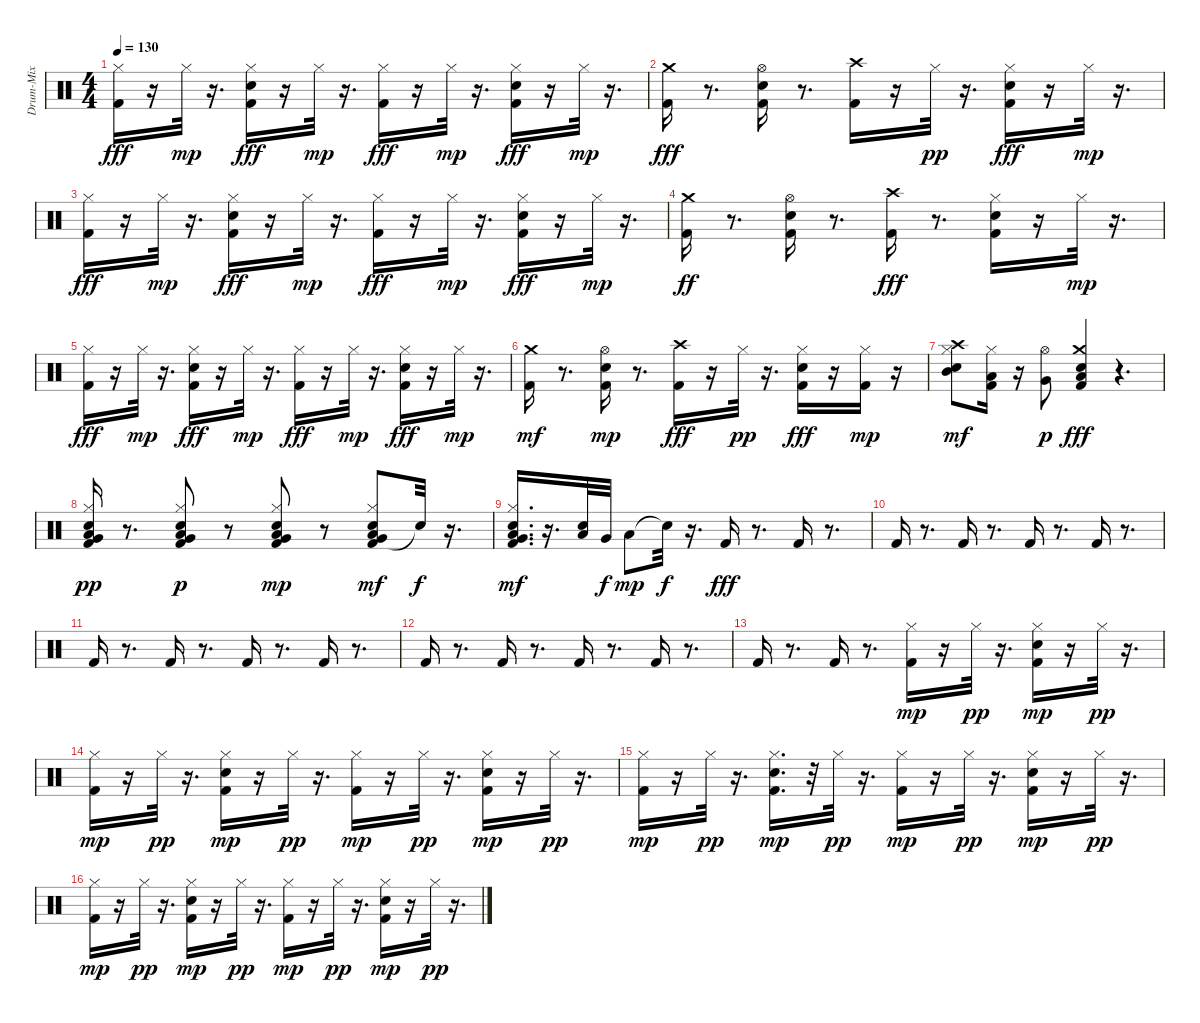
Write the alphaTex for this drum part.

\track ("Drum-Mix" "Drum-Mix") {instrument percussion}
\staff {score}
\articulation defaults
\ts (4 4)
\tempo 130
\clef neutral
\ks c
("Kick (hit) 2" "Hi-Hat (closed)").16{dy fff} r.16 "Hi-Hat (closed)".32{dy mp} r.16{d} ("Kick (hit) 2" "Snare (hit) 2" "Hi-Hat (closed)").16{dy fff} r.16 "Hi-Hat (closed)".32{dy mp} r.16{d} ("Kick (hit) 2" "Hi-Hat (closed)").16{dy fff} r.16 "Hi-Hat (closed)".32{dy mp} r.16{d} ("Kick (hit) 2" "Snare (hit) 2" "Hi-Hat (closed)").16{dy fff} r.16 "Hi-Hat (closed)".32{dy mp} r.16{d} |
("Kick (hit) 2" "Crash medium (hit)").16{dy fff} r.8{d} ("Kick (hit) 2" "Snare (hit) 2" "Hi-Hat (open)").16 r.8{d} ("Kick (hit) 2" "Crash high (hit)").16 r.16 "Hi-Hat (closed)".32{dy pp} r.16{d} ("Kick (hit) 2" "Snare (hit) 2" "Hi-Hat (closed)").16{dy fff} r.16 "Hi-Hat (closed)".32{dy mp} r.16{d} |
("Kick (hit) 2" "Hi-Hat (closed)").16{dy fff} r.16 "Hi-Hat (closed)".32{dy mp} r.16{d} ("Kick (hit) 2" "Snare (hit) 2" "Hi-Hat (closed)").16{dy fff} r.16 "Hi-Hat (closed)".32{dy mp} r.16{d} ("Kick (hit) 2" "Hi-Hat (closed)").16{dy fff} r.16 "Hi-Hat (closed)".32{dy mp} r.16{d} ("Kick (hit) 2" "Snare (hit) 2" "Hi-Hat (closed)").16{dy fff} r.16 "Hi-Hat (closed)".32{dy mp} r.16{d} |
("Kick (hit) 2" "Crash medium (hit)").16{dy ff} r.8{d} ("Kick (hit) 2" "Snare (hit) 2" "Hi-Hat (open)").16 r.8{d} ("Kick (hit) 2" "Crash high (hit)").16{dy fff} r.8{d} ("Kick (hit) 2" "Snare (hit) 2" "Hi-Hat (closed)").16 r.16 "Hi-Hat (closed)".32{dy mp} r.16{d} |
("Kick (hit) 2" "Hi-Hat (closed)").16{dy fff} r.16 "Hi-Hat (closed)".32{dy mp} r.16{d} ("Kick (hit) 2" "Snare (hit) 2" "Hi-Hat (closed)").16{dy fff} r.16 "Hi-Hat (closed)".32{dy mp} r.16{d} ("Kick (hit) 2" "Hi-Hat (closed)").16{dy fff} r.16 "Hi-Hat (closed)".32{dy mp} r.16{d} ("Kick (hit) 2" "Snare (hit) 2" "Hi-Hat (closed)").16{dy fff} r.16 "Hi-Hat (closed)".32{dy mp} r.16{d} |
("Kick (hit) 2" "Crash medium (hit)").16{dy mf} r.8{d} ("Kick (hit) 2" "Snare (hit) 2" "Hi-Hat (open)").16{dy mp} r.8{d} ("Kick (hit) 2" "Crash high (hit)").16{dy fff} r.16 "Hi-Hat (closed)".32{dy pp} r.16{d} ("Kick (hit) 2" "Snare (hit) 2" "Hi-Hat (closed)").16{dy fff} r.16 ("Kick (hit) 2" "Hi-Hat (closed)").16{dy mp} r.16 |
("Snare (hit) 2" "Hi-Hat (closed)" "Mid Tom (hit)" "Crash high (hit)").8{dy mf} ("Kick (hit) 2" "Hi-Hat (closed)" "Low Tom (hit)").16 r.16 ("Very Low Tom (hit)" "Hi-Hat (open)").8{dy p} ("Kick (hit) 2" "Snare (hit) 2" "Low Floor Tom (hit)" "Crash medium (hit)").4{dy fff} r.4{d} |
("Kick (hit) 2" "Snare (hit) 2" "Low Floor Tom (hit)" "Hi-Hat (closed)" "Very Low Tom (hit)").16{dy pp} r.8{d} ("Kick (hit) 2" "Snare (hit) 2" "Low Floor Tom (hit)" "Hi-Hat (closed)" "Very Low Tom (hit)").8{dy p} r.8 ("Kick (hit) 2" "Snare (hit) 2" "Low Floor Tom (hit)" "Hi-Hat (closed)" "Very Low Tom (hit)").8{dy mp} r.8 ("Kick (hit) 2" "Snare (hit) 2" "Low Floor Tom (hit)" "Hi-Hat (closed)" "Very Low Tom (hit)").8{dy mf} "Snare (hit)"{t}.32{dy f} r.16{d} |
("Kick (hit) 2" "Snare (hit) 2" "Low Floor Tom (hit)" "Hi-Hat (closed)" "Very Low Tom (hit)").16{d dy mf} r.16{d} ("Snare (hit) 2" "Low Tom (hit)").32 "Very Low Tom (hit)".32{dy f} "Low Floor Tom (hit)".8{dy mp} "Snare (hit)"{t}.32{dy f} r.16{d} "Kick (hit) 2".16{dy fff} r.8{d} "Kick (hit) 2".16 r.8{d} |
"Kick (hit) 2".16 r.8{d} "Kick (hit) 2".16 r.8{d} "Kick (hit) 2".16 r.8{d} "Kick (hit) 2".16 r.8{d} |
"Kick (hit) 2".16 r.8{d} "Kick (hit) 2".16 r.8{d} "Kick (hit) 2".16 r.8{d} "Kick (hit) 2".16 r.8{d} |
"Kick (hit) 2".16 r.8{d} "Kick (hit) 2".16 r.8{d} "Kick (hit) 2".16 r.8{d} "Kick (hit) 2".16 r.8{d} |
"Kick (hit) 2".16 r.8{d} "Kick (hit) 2".16 r.8{d} ("Kick (hit) 2" "Hi-Hat (closed)").16{dy mp} r.16 "Hi-Hat (closed)".32{dy pp} r.16{d} ("Kick (hit) 2" "Snare (hit) 2" "Hi-Hat (closed)").16{dy mp} r.16 "Hi-Hat (closed)".32{dy pp} r.16{d} |
("Kick (hit) 2" "Hi-Hat (closed)").16{dy mp} r.16 "Hi-Hat (closed)".32{dy pp} r.16{d} ("Kick (hit) 2" "Snare (hit) 2" "Hi-Hat (closed)").16{dy mp} r.16 "Hi-Hat (closed)".32{dy pp} r.16{d} ("Kick (hit) 2" "Hi-Hat (closed)").16{dy mp} r.16 "Hi-Hat (closed)".32{dy pp} r.16{d} ("Kick (hit) 2" "Snare (hit) 2" "Hi-Hat (closed)").16{dy mp} r.16 "Hi-Hat (closed)".32{dy pp} r.16{d} |
("Kick (hit) 2" "Hi-Hat (closed)").16{dy mp} r.16 "Hi-Hat (closed)".32{dy pp} r.16{d} ("Kick (hit) 2" "Snare (hit) 2" "Hi-Hat (closed)").16{d dy mp} r.32 "Hi-Hat (closed)".32{dy pp} r.16{d} ("Kick (hit) 2" "Hi-Hat (closed)").16{dy mp} r.16 "Hi-Hat (closed)".32{dy pp} r.16{d} ("Kick (hit) 2" "Snare (hit) 2" "Hi-Hat (closed)").16{dy mp} r.16 "Hi-Hat (closed)".32{dy pp} r.16{d} |
("Kick (hit) 2" "Hi-Hat (closed)").16{dy mp} r.16 "Hi-Hat (closed)".32{dy pp} r.16{d} ("Kick (hit) 2" "Snare (hit) 2" "Hi-Hat (closed)").16{dy mp} r.16 "Hi-Hat (closed)".32{dy pp} r.16{d} ("Kick (hit) 2" "Hi-Hat (closed)").16{dy mp} r.16 "Hi-Hat (closed)".32{dy pp} r.16{d} ("Kick (hit) 2" "Snare (hit) 2" "Hi-Hat (closed)").16{dy mp} r.16 "Hi-Hat (closed)".32{dy pp} r.16{d}
